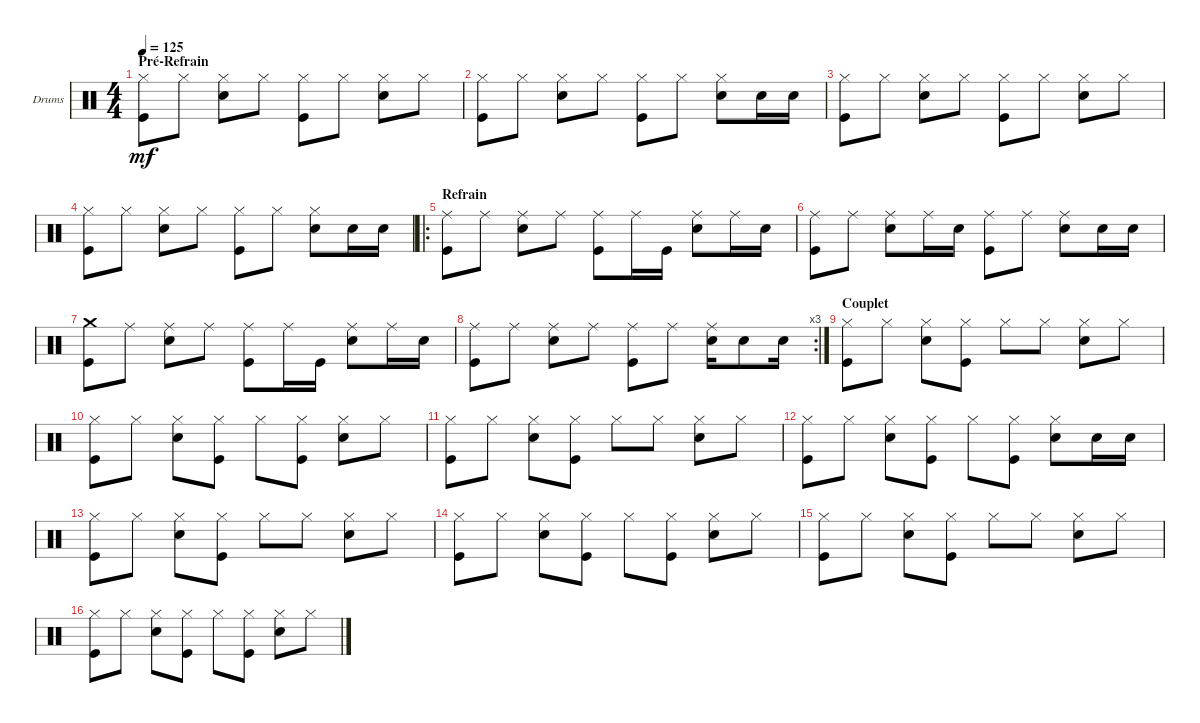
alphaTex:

\defaultSystemsLayout 4
\bracketExtendMode groupsimilarinstruments
\firstSystemTrackNameOrientation horizontal
\otherSystemsTrackNameOrientation horizontal
\track ("Drumkit" "Drums") {instrument percussion}
\staff {score}
\articulation defaults
\ts (4 4)
\section ("" "Pré-Refrain")
\tempo 125
\clef neutral
\ks c
("Kick (hit)" "Hi-Hat (closed)").8{dy mf} "Hi-Hat (closed)".8 ("Hi-Hat (closed)" "Snare (hit) 2").8 "Hi-Hat (closed)".8 ("Hi-Hat (closed)" "Kick (hit)").8 "Hi-Hat (closed)".8 ("Hi-Hat (closed)" "Snare (hit) 2").8 "Hi-Hat (closed)".8 |
("Kick (hit)" "Hi-Hat (closed)").8 "Hi-Hat (closed)".8 ("Hi-Hat (closed)" "Snare (hit) 2").8 "Hi-Hat (closed)".8 ("Hi-Hat (closed)" "Kick (hit)").8 "Hi-Hat (closed)".8 ("Hi-Hat (closed)" "Snare (hit) 2").8 "Snare (hit) 2".16 "Snare (hit) 2".16 |
("Kick (hit)" "Hi-Hat (closed)").8 "Hi-Hat (closed)".8 ("Hi-Hat (closed)" "Snare (hit) 2").8 "Hi-Hat (closed)".8 ("Hi-Hat (closed)" "Kick (hit)").8 "Hi-Hat (closed)".8 ("Hi-Hat (closed)" "Snare (hit) 2").8 "Hi-Hat (closed)".8 |
("Kick (hit)" "Hi-Hat (closed)").8 "Hi-Hat (closed)".8 ("Hi-Hat (closed)" "Snare (hit) 2").8 "Hi-Hat (closed)".8 ("Hi-Hat (closed)" "Kick (hit)").8 "Hi-Hat (closed)".8 ("Hi-Hat (closed)" "Snare (hit) 2").8 "Snare (hit) 2".16 "Snare (hit) 2".16 |
\ro
\section ("" "Refrain")
("Kick (hit)" "Ride (middle)").8 "Ride (middle)".8 ("Snare (hit) 2" "Ride (middle)").8 "Ride (middle)".8 ("Kick (hit)" "Ride (middle)").8 "Ride (middle)".16 "Kick (hit)".16 ("Snare (hit) 2" "Ride (middle)").8 "Ride (middle)".16 "Snare (hit) 2".16 |
("Kick (hit)" "Ride (middle)").8 "Ride (middle)".8 ("Snare (hit) 2" "Ride (middle)").8 "Ride (middle)".16 "Snare (hit) 2".16 ("Kick (hit)" "Ride (middle)").8 "Ride (middle)".8 ("Snare (hit) 2" "Ride (middle)").8 "Snare (hit) 2".16 "Snare (hit) 2".16 |
("Kick (hit)" "Crash medium (hit)").8 "Ride (middle)".8 ("Snare (hit) 2" "Ride (middle)").8 "Ride (middle)".8 ("Kick (hit)" "Ride (middle)").8 "Ride (middle)".16 "Kick (hit)".16 ("Snare (hit) 2" "Ride (middle)").8 "Ride (middle)".16 "Snare (hit) 2".16 |
\rc 3
("Kick (hit)" "Ride (middle)").8 "Ride (middle)".8 ("Snare (hit) 2" "Ride (middle)").8 "Ride (middle)".8 ("Kick (hit)" "Ride (middle)").8 "Ride (middle)".8 ("Snare (hit) 2" "Ride (middle)").16 "Snare (hit) 2".8 "Snare (hit) 2".16 |
\section ("" "Couplet")
("Hi-Hat (closed)" "Kick (hit)").8 "Hi-Hat (closed)".8 ("Hi-Hat (closed)" "Snare (hit) 2").8 ("Hi-Hat (closed)" "Kick (hit)").8 "Hi-Hat (closed)".8 "Hi-Hat (closed)".8 ("Hi-Hat (closed)" "Snare (hit) 2").8 "Hi-Hat (closed)".8 |
("Hi-Hat (closed)" "Kick (hit)").8 "Hi-Hat (closed)".8 ("Hi-Hat (closed)" "Snare (hit) 2").8 ("Hi-Hat (closed)" "Kick (hit)").8 "Hi-Hat (closed)".8 ("Hi-Hat (closed)" "Kick (hit)").8 ("Hi-Hat (closed)" "Snare (hit) 2").8 "Hi-Hat (closed)".8 |
("Hi-Hat (closed)" "Kick (hit)").8 "Hi-Hat (closed)".8 ("Hi-Hat (closed)" "Snare (hit) 2").8 ("Hi-Hat (closed)" "Kick (hit)").8 "Hi-Hat (closed)".8 "Hi-Hat (closed)".8 ("Hi-Hat (closed)" "Snare (hit) 2").8 "Hi-Hat (closed)".8 |
("Hi-Hat (closed)" "Kick (hit)").8 "Hi-Hat (closed)".8 ("Hi-Hat (closed)" "Snare (hit) 2").8 ("Hi-Hat (closed)" "Kick (hit)").8 "Hi-Hat (closed)".8 ("Hi-Hat (closed)" "Kick (hit)").8 ("Hi-Hat (closed)" "Snare (hit) 2").8 "Snare (hit) 2".16 "Snare (hit) 2".16 |
("Hi-Hat (closed)" "Kick (hit)").8 "Hi-Hat (closed)".8 ("Hi-Hat (closed)" "Snare (hit) 2").8 ("Hi-Hat (closed)" "Kick (hit)").8 "Hi-Hat (closed)".8 "Hi-Hat (closed)".8 ("Hi-Hat (closed)" "Snare (hit) 2").8 "Hi-Hat (closed)".8 |
("Hi-Hat (closed)" "Kick (hit)").8 "Hi-Hat (closed)".8 ("Hi-Hat (closed)" "Snare (hit) 2").8 ("Hi-Hat (closed)" "Kick (hit)").8 "Hi-Hat (closed)".8 ("Hi-Hat (closed)" "Kick (hit)").8 ("Hi-Hat (closed)" "Snare (hit) 2").8 "Hi-Hat (closed)".8 |
("Hi-Hat (closed)" "Kick (hit)").8 "Hi-Hat (closed)".8 ("Hi-Hat (closed)" "Snare (hit) 2").8 ("Hi-Hat (closed)" "Kick (hit)").8 "Hi-Hat (closed)".8 "Hi-Hat (closed)".8 ("Hi-Hat (closed)" "Snare (hit) 2").8 "Hi-Hat (closed)".8 |
("Hi-Hat (closed)" "Kick (hit)").8 "Hi-Hat (closed)".8 ("Hi-Hat (closed)" "Snare (hit) 2").8 ("Hi-Hat (closed)" "Kick (hit)").8 "Hi-Hat (closed)".8 ("Hi-Hat (closed)" "Kick (hit)").8 ("Hi-Hat (closed)" "Snare (hit) 2").8 "Hi-Hat (closed)".8
